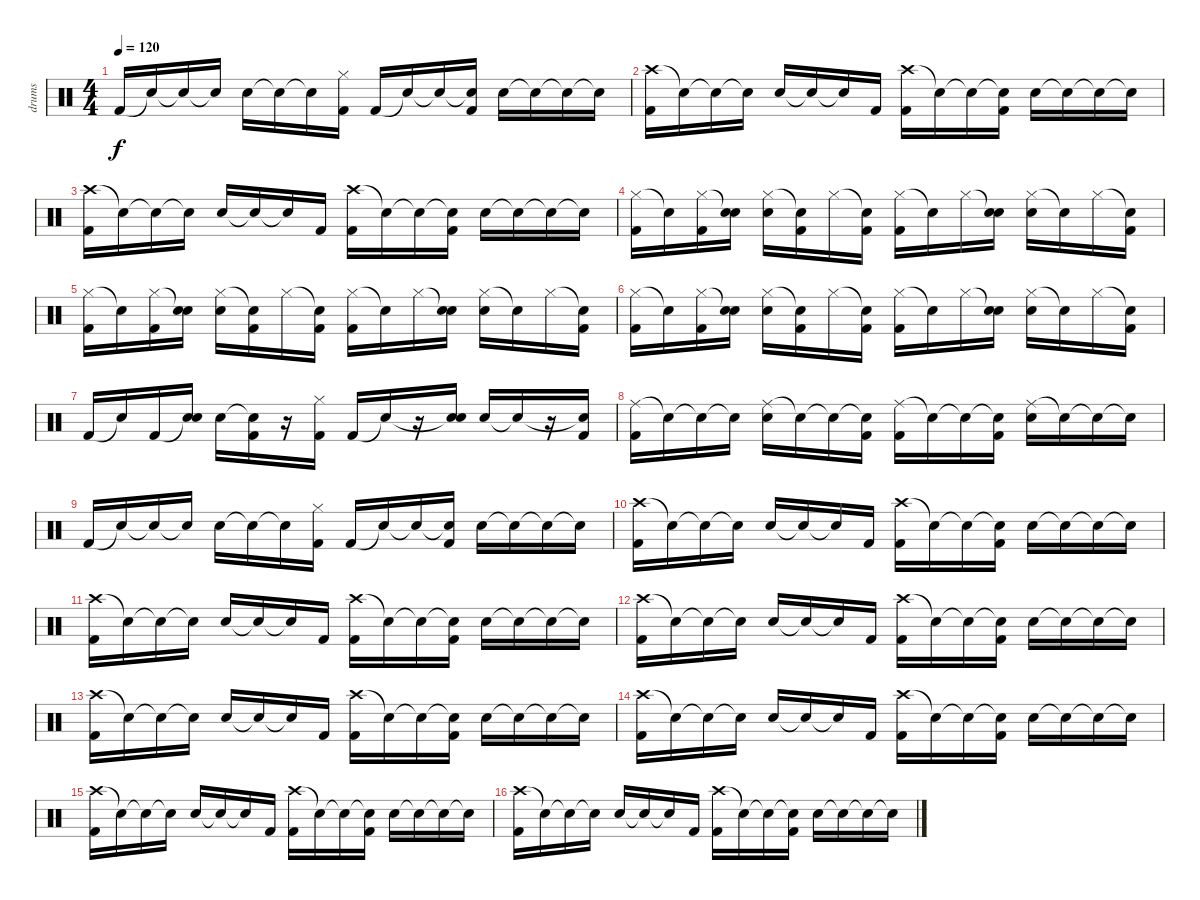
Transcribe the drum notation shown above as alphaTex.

\track ("drums" "drums") {instrument percussion}
\staff {score}
\articulation defaults
\ts (4 4)
\tempo 120
\clef neutral
\ks c "Kick (hit) 2".16{dy f} "Snare (hit)"{t}.16 "Snare (hit)"{t}.16 "Snare (hit)"{t}.16 "Snare (hit) 2".16 "Snare (hit)"{t}.16 "Snare (hit)"{t}.16
("Hi-Hat (closed)" "Kick (hit) 2").16 "Kick (hit) 2".16 "Snare (hit)"{t}.16 "Snare (hit)"{t}.16 ("Snare (hit)"{t} "Kick (hit) 2").16 "Snare (hit) 2".16 "Snare (hit)"{t}.16 "Snare (hit)"{t}.16 "Snare (hit)"{t}.16 |
("Crash high (hit)" "Kick (hit) 2").16 "Snare (hit)"{t}.16 "Snare (hit)"{t}.16 "Snare (hit)"{t}.16 "Snare (hit) 2".16 "Snare (hit)"{t}.16 "Snare (hit)"{t}.16 "Kick (hit) 2".16 ("Crash high (hit)" "Kick (hit) 2").16 "Snare (hit)"{t}.16 "Snare (hit)"{t}.16 ("Snare (hit)"{t} "Kick (hit) 2").16 "Snare (hit) 2".16 "Snare (hit)"{t}.16 "Snare (hit)"{t}.16 "Snare (hit)"{t}.16 |
("Crash high (hit)" "Kick (hit) 2").16 "Snare (hit)"{t}.16 "Snare (hit)"{t}.16 "Snare (hit)"{t}.16 "Snare (hit) 2".16 "Snare (hit)"{t}.16 "Snare (hit)"{t}.16 "Kick (hit) 2".16 ("Crash high (hit)" "Kick (hit) 2").16 "Snare (hit)"{t}.16 "Snare (hit)"{t}.16 ("Snare (hit)"{t} "Kick (hit) 2").16 "Snare (hit) 2".16 "Snare (hit)"{t}.16 "Snare (hit)"{t}.16 "Snare (hit)"{t}.16 |
("Hi-Hat (closed)" "Kick (hit) 2").16 "Snare (hit)"{t}.16 ("Hi-Hat (closed)" "Kick (hit) 2").16 ("Snare (hit)"{t} "Snare (hit) 2").16 ("Hi-Hat (closed)" "Snare (hit) 2").16 ("Snare (hit)"{t} "Kick (hit) 2").16 "Hi-Hat (closed)".16 ("Snare (hit)"{t} "Kick (hit) 2").16 ("Hi-Hat (closed)" "Kick (hit) 2").16 "Snare (hit)"{t}.16 "Hi-Hat (closed)".16 ("Snare (hit)"{t} "Snare (hit) 2").16 ("Hi-Hat (closed)" "Snare (hit) 2").16 "Snare (hit)"{t}.16 "Hi-Hat (closed)".16 ("Snare (hit)"{t} "Kick (hit) 2").16 |
("Hi-Hat (closed)" "Kick (hit) 2").16 "Snare (hit)"{t}.16 ("Hi-Hat (closed)" "Kick (hit) 2").16 ("Snare (hit)"{t} "Snare (hit) 2").16 ("Hi-Hat (closed)" "Snare (hit) 2").16 ("Snare (hit)"{t} "Kick (hit) 2").16 "Hi-Hat (closed)".16 ("Snare (hit)"{t} "Kick (hit) 2").16 ("Hi-Hat (closed)" "Kick (hit) 2").16 "Snare (hit)"{t}.16 "Hi-Hat (closed)".16 ("Snare (hit)"{t} "Snare (hit) 2").16 ("Hi-Hat (closed)" "Snare (hit) 2").16 "Snare (hit)"{t}.16 "Hi-Hat (closed)".16 ("Snare (hit)"{t} "Kick (hit) 2").16 |
("Hi-Hat (closed)" "Kick (hit) 2").16 "Snare (hit)"{t}.16 ("Hi-Hat (closed)" "Kick (hit) 2").16 ("Snare (hit)"{t} "Snare (hit) 2").16 ("Hi-Hat (closed)" "Snare (hit) 2").16 ("Snare (hit)"{t} "Kick (hit) 2").16 "Hi-Hat (closed)".16 ("Snare (hit)"{t} "Kick (hit) 2").16 ("Hi-Hat (closed)" "Kick (hit) 2").16 "Snare (hit)"{t}.16 "Hi-Hat (closed)".16 ("Snare (hit)"{t} "Snare (hit) 2").16 ("Hi-Hat (closed)" "Snare (hit) 2").16 "Snare (hit)"{t}.16 "Hi-Hat (closed)".16 ("Snare (hit)"{t} "Kick (hit) 2").16 |
"Kick (hit) 2".16 "Snare (hit)"{t}.16 "Kick (hit) 2".16 ("Snare (hit)"{t} "Snare (hit) 2").16 "Snare (hit) 2".16 ("Snare (hit)"{t} "Kick (hit) 2").16 r.16 ("Hi-Hat (closed)" "Kick (hit) 2").16 "Kick (hit) 2".16 "Snare (hit)"{t}.16 r.16 ("Snare (hit)"{t} "Snare (hit) 2").16 "Snare (hit) 2".16 "Snare (hit)"{t}.16 r.16 ("Snare (hit)"{t} "Kick (hit) 2").16 |
("Ride (middle)" "Kick (hit) 2").16 "Snare (hit)"{t}.16 "Snare (hit)"{t}.16 "Snare (hit)"{t}.16 ("Ride (middle)" "Snare (hit) 2").16 "Snare (hit)"{t}.16 "Snare (hit)"{t}.16 ("Snare (hit)"{t} "Kick (hit) 2").16 ("Ride (middle)" "Kick (hit) 2").16 "Snare (hit)"{t}.16 "Snare (hit)"{t}.16 ("Snare (hit)"{t} "Kick (hit) 2").16 ("Ride (middle)" "Snare (hit) 2").16 "Snare (hit)"{t}.16 "Snare (hit)"{t}.16 "Snare (hit)"{t}.16 |
"Kick (hit) 2".16 "Snare (hit)"{t}.16 "Snare (hit)"{t}.16 "Snare (hit)"{t}.16 "Snare (hit) 2".16 "Snare (hit)"{t}.16 "Snare (hit)"{t}.16 ("Hi-Hat (closed)" "Kick (hit) 2").16 "Kick (hit) 2".16 "Snare (hit)"{t}.16 "Snare (hit)"{t}.16 ("Snare (hit)"{t} "Kick (hit) 2").16 "Snare (hit) 2".16 "Snare (hit)"{t}.16 "Snare (hit)"{t}.16 "Snare (hit)"{t}.16 |
("Crash high (hit)" "Kick (hit) 2").16 "Snare (hit)"{t}.16 "Snare (hit)"{t}.16 "Snare (hit)"{t}.16 "Snare (hit) 2".16 "Snare (hit)"{t}.16 "Snare (hit)"{t}.16 "Kick (hit) 2".16 ("Crash high (hit)" "Kick (hit) 2").16 "Snare (hit)"{t}.16 "Snare (hit)"{t}.16 ("Snare (hit)"{t} "Kick (hit) 2").16 "Snare (hit) 2".16 "Snare (hit)"{t}.16 "Snare (hit)"{t}.16 "Snare (hit)"{t}.16 |
("Crash high (hit)" "Kick (hit) 2").16 "Snare (hit)"{t}.16 "Snare (hit)"{t}.16 "Snare (hit)"{t}.16 "Snare (hit) 2".16 "Snare (hit)"{t}.16 "Snare (hit)"{t}.16 "Kick (hit) 2".16 ("Crash high (hit)" "Kick (hit) 2").16 "Snare (hit)"{t}.16 "Snare (hit)"{t}.16 ("Snare (hit)"{t} "Kick (hit) 2").16 "Snare (hit) 2".16 "Snare (hit)"{t}.16 "Snare (hit)"{t}.16 "Snare (hit)"{t}.16 |
("Crash high (hit)" "Kick (hit) 2").16 "Snare (hit)"{t}.16 "Snare (hit)"{t}.16 "Snare (hit)"{t}.16 "Snare (hit) 2".16 "Snare (hit)"{t}.16 "Snare (hit)"{t}.16 "Kick (hit) 2".16 ("Crash high (hit)" "Kick (hit) 2").16 "Snare (hit)"{t}.16 "Snare (hit)"{t}.16 ("Snare (hit)"{t} "Kick (hit) 2").16 "Snare (hit) 2".16 "Snare (hit)"{t}.16 "Snare (hit)"{t}.16 "Snare (hit)"{t}.16 |
("Crash high (hit)" "Kick (hit) 2").16 "Snare (hit)"{t}.16 "Snare (hit)"{t}.16 "Snare (hit)"{t}.16 "Snare (hit) 2".16 "Snare (hit)"{t}.16 "Snare (hit)"{t}.16 "Kick (hit) 2".16 ("Crash high (hit)" "Kick (hit) 2").16 "Snare (hit)"{t}.16 "Snare (hit)"{t}.16 ("Snare (hit)"{t} "Kick (hit) 2").16 "Snare (hit) 2".16 "Snare (hit)"{t}.16 "Snare (hit)"{t}.16 "Snare (hit)"{t}.16 |
("Crash high (hit)" "Kick (hit) 2").16 "Snare (hit)"{t}.16 "Snare (hit)"{t}.16 "Snare (hit)"{t}.16 "Snare (hit) 2".16 "Snare (hit)"{t}.16 "Snare (hit)"{t}.16 "Kick (hit) 2".16 ("Crash high (hit)" "Kick (hit) 2").16 "Snare (hit)"{t}.16 "Snare (hit)"{t}.16 ("Snare (hit)"{t} "Kick (hit) 2").16 "Snare (hit) 2".16 "Snare (hit)"{t}.16 "Snare (hit)"{t}.16 "Snare (hit)"{t}.16 |
("Crash high (hit)" "Kick (hit) 2").16 "Snare (hit)"{t}.16 "Snare (hit)"{t}.16 "Snare (hit)"{t}.16 "Snare (hit) 2".16 "Snare (hit)"{t}.16 "Snare (hit)"{t}.16 "Kick (hit) 2".16 ("Crash high (hit)" "Kick (hit) 2").16 "Snare (hit)"{t}.16 "Snare (hit)"{t}.16 ("Snare (hit)"{t} "Kick (hit) 2").16 "Snare (hit) 2".16 "Snare (hit)"{t}.16 "Snare (hit)"{t}.16 "Snare (hit)"{t}.16 |
("Crash high (hit)" "Kick (hit) 2").16 "Snare (hit)"{t}.16 "Snare (hit)"{t}.16 "Snare (hit)"{t}.16 "Snare (hit) 2".16 "Snare (hit)"{t}.16 "Snare (hit)"{t}.16 "Kick (hit) 2".16 ("Crash high (hit)" "Kick (hit) 2").16 "Snare (hit)"{t}.16 "Snare (hit)"{t}.16 ("Snare (hit)"{t} "Kick (hit) 2").16 "Snare (hit) 2".16 "Snare (hit)"{t}.16 "Snare (hit)"{t}.16 "Snare (hit)"{t}.16
